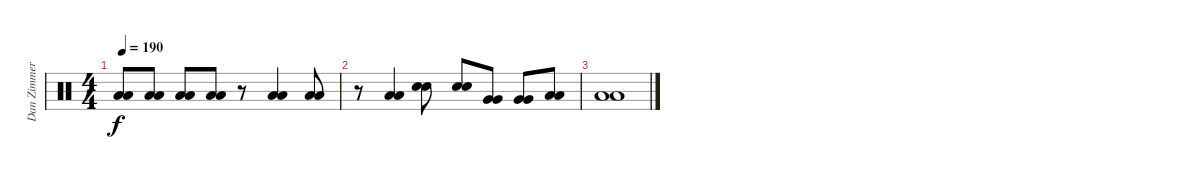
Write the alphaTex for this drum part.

\track ("Dan Zimmermann" "Dan Zimmer") {instrument percussion}
\staff {score}
\articulation defaults
\ts (4 4)
\tempo 190
\clef neutral
\ks c
("Low Tom (hit)" "Low Tom (hit)").8{dy f} ("Low Tom (hit)" "Low Tom (hit)").8 ("Low Tom (hit)" "Low Tom (hit)").8 ("Low Tom (hit)" "Low Tom (hit)").8 r.8 ("Low Tom (hit)" "Low Tom (hit)").4 ("Low Tom (hit)" "Low Tom (hit)").8 |
r.8 ("Low Tom (hit)" "Low Tom (hit)").4 ("Electric Snare (hit)" "Electric Snare (hit)").8 ("Electric Snare (hit)" "Electric Snare (hit)").8 ("Very Low Tom (hit)" "Very Low Tom (hit)").8 ("Very Low Tom (hit)" "Very Low Tom (hit)").8 ("Low Tom (hit)" "Low Tom (hit)").8 |
("Low Tom (hit)" "Low Tom (hit)").1
